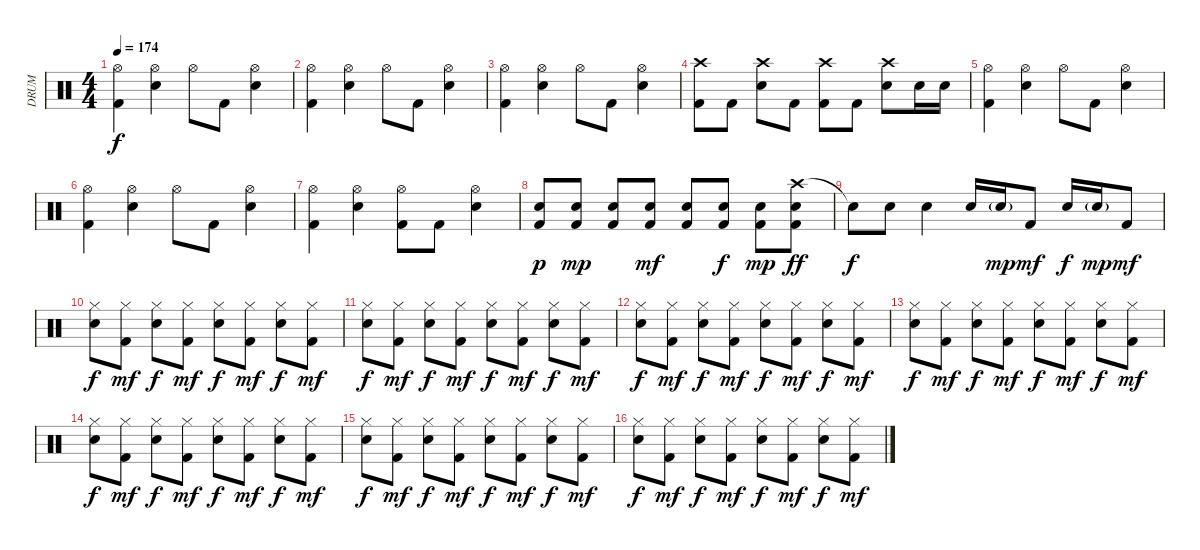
\track ("DRUM" "DRUM") {instrument percussion}
\staff {score}
\articulation defaults
\ts (4 4)
\tempo 174
\clef neutral
\ks c
("Hi-Hat (open)" "Kick (hit) 2").4{dy f} ("Hi-Hat (open)" "Snare (hit) 2").4 "Hi-Hat (open)".8 "Kick (hit) 2".8 ("Hi-Hat (open)" "Snare (hit) 2").4 |
("Hi-Hat (open)" "Kick (hit) 2").4 ("Hi-Hat (open)" "Snare (hit) 2").4 "Hi-Hat (open)".8 "Kick (hit) 2".8 ("Hi-Hat (open)" "Snare (hit) 2").4 |
("Hi-Hat (open)" "Kick (hit) 2").4 ("Hi-Hat (open)" "Snare (hit) 2").4 "Hi-Hat (open)".8 "Kick (hit) 2".8 ("Hi-Hat (open)" "Snare (hit) 2").4 |
("Crash high (hit)" "Kick (hit) 2").8 "Kick (hit) 2".8 ("Crash high (hit)" "Snare (hit) 2").8 "Kick (hit) 2".8 ("Crash high (hit)" "Kick (hit) 2").8 "Kick (hit) 2".8 ("Crash high (hit)" "Snare (hit) 2").8 "Snare (hit) 2".16 "Snare (hit) 2".16 |
("Hi-Hat (open)" "Kick (hit) 2").4 ("Hi-Hat (open)" "Snare (hit) 2").4 "Hi-Hat (open)".8 "Kick (hit) 2".8 ("Hi-Hat (open)" "Snare (hit) 2").4 |
("Hi-Hat (open)" "Kick (hit) 2").4 ("Hi-Hat (open)" "Snare (hit) 2").4 "Hi-Hat (open)".8 "Kick (hit) 2".8 ("Hi-Hat (open)" "Snare (hit) 2").4 |
("Hi-Hat (open)" "Kick (hit) 2").4 ("Hi-Hat (open)" "Snare (hit) 2").4 ("Hi-Hat (open)" "Kick (hit) 2").8 "Kick (hit) 2".8 ("Hi-Hat (open)" "Snare (hit) 2").4 |
("Snare (hit) 2" "Kick (hit) 2").8{dy p} ("Snare (hit) 2" "Kick (hit) 2").8{dy mp} ("Snare (hit) 2" "Kick (hit) 2").8 ("Snare (hit) 2" "Kick (hit) 2").8{dy mf} ("Snare (hit) 2" "Kick (hit) 2").8 ("Snare (hit) 2" "Kick (hit) 2").8{dy f} ("Snare (hit) 2" "Kick (hit) 2").8{dy mp} ("Crash high (hit)" "Snare (hit) 2" "Kick (hit) 2").8{dy ff} |
"Snare (hit)"{t}.8{dy f} "Snare (hit) 2".8 "Snare (hit) 2".4 "Snare (hit) 2".16 "Snare (hit) 2"{g}.16{dy mp} "Kick (hit) 2".8{dy mf} "Snare (hit) 2".16{dy f} "Snare (hit) 2"{g}.16{dy mp} "Kick (hit) 2".8{dy mf} |
("Hi-Hat (closed)" "Snare (hit) 2").8{dy f} ("Hi-Hat (closed)" "Kick (hit) 2").8{dy mf} ("Hi-Hat (closed)" "Snare (hit) 2").8{dy f} ("Hi-Hat (closed)" "Kick (hit) 2").8{dy mf} ("Hi-Hat (closed)" "Snare (hit) 2").8{dy f} ("Hi-Hat (closed)" "Kick (hit) 2").8{dy mf} ("Hi-Hat (closed)" "Snare (hit) 2").8{dy f} ("Hi-Hat (closed)" "Kick (hit) 2").8{dy mf} |
("Hi-Hat (closed)" "Snare (hit) 2").8{dy f} ("Hi-Hat (closed)" "Kick (hit) 2").8{dy mf} ("Hi-Hat (closed)" "Snare (hit) 2").8{dy f} ("Hi-Hat (closed)" "Kick (hit) 2").8{dy mf} ("Hi-Hat (closed)" "Snare (hit) 2").8{dy f} ("Hi-Hat (closed)" "Kick (hit) 2").8{dy mf} ("Hi-Hat (closed)" "Snare (hit) 2").8{dy f} ("Hi-Hat (closed)" "Kick (hit) 2").8{dy mf} |
("Hi-Hat (closed)" "Snare (hit) 2").8{dy f} ("Hi-Hat (closed)" "Kick (hit) 2").8{dy mf} ("Hi-Hat (closed)" "Snare (hit) 2").8{dy f} ("Hi-Hat (closed)" "Kick (hit) 2").8{dy mf} ("Hi-Hat (closed)" "Snare (hit) 2").8{dy f} ("Hi-Hat (closed)" "Kick (hit) 2").8{dy mf} ("Hi-Hat (closed)" "Snare (hit) 2").8{dy f} ("Hi-Hat (closed)" "Kick (hit) 2").8{dy mf} |
("Hi-Hat (closed)" "Snare (hit) 2").8{dy f} ("Hi-Hat (closed)" "Kick (hit) 2").8{dy mf} ("Hi-Hat (closed)" "Snare (hit) 2").8{dy f} ("Hi-Hat (closed)" "Kick (hit) 2").8{dy mf} ("Hi-Hat (closed)" "Snare (hit) 2").8{dy f} ("Hi-Hat (closed)" "Kick (hit) 2").8{dy mf} ("Hi-Hat (closed)" "Snare (hit) 2").8{dy f} ("Hi-Hat (closed)" "Kick (hit) 2").8{dy mf} |
("Hi-Hat (closed)" "Snare (hit) 2").8{dy f} ("Hi-Hat (closed)" "Kick (hit) 2").8{dy mf} ("Hi-Hat (closed)" "Snare (hit) 2").8{dy f} ("Hi-Hat (closed)" "Kick (hit) 2").8{dy mf} ("Hi-Hat (closed)" "Snare (hit) 2").8{dy f} ("Hi-Hat (closed)" "Kick (hit) 2").8{dy mf} ("Hi-Hat (closed)" "Snare (hit) 2").8{dy f} ("Hi-Hat (closed)" "Kick (hit) 2").8{dy mf} |
("Hi-Hat (closed)" "Snare (hit) 2").8{dy f} ("Hi-Hat (closed)" "Kick (hit) 2").8{dy mf} ("Hi-Hat (closed)" "Snare (hit) 2").8{dy f} ("Hi-Hat (closed)" "Kick (hit) 2").8{dy mf} ("Hi-Hat (closed)" "Snare (hit) 2").8{dy f} ("Hi-Hat (closed)" "Kick (hit) 2").8{dy mf} ("Hi-Hat (closed)" "Snare (hit) 2").8{dy f} ("Hi-Hat (closed)" "Kick (hit) 2").8{dy mf} |
("Hi-Hat (closed)" "Snare (hit) 2").8{dy f} ("Hi-Hat (closed)" "Kick (hit) 2").8{dy mf} ("Hi-Hat (closed)" "Snare (hit) 2").8{dy f} ("Hi-Hat (closed)" "Kick (hit) 2").8{dy mf} ("Hi-Hat (closed)" "Snare (hit) 2").8{dy f} ("Hi-Hat (closed)" "Kick (hit) 2").8{dy mf} ("Hi-Hat (closed)" "Snare (hit) 2").8{dy f} ("Hi-Hat (closed)" "Kick (hit) 2").8{dy mf}
